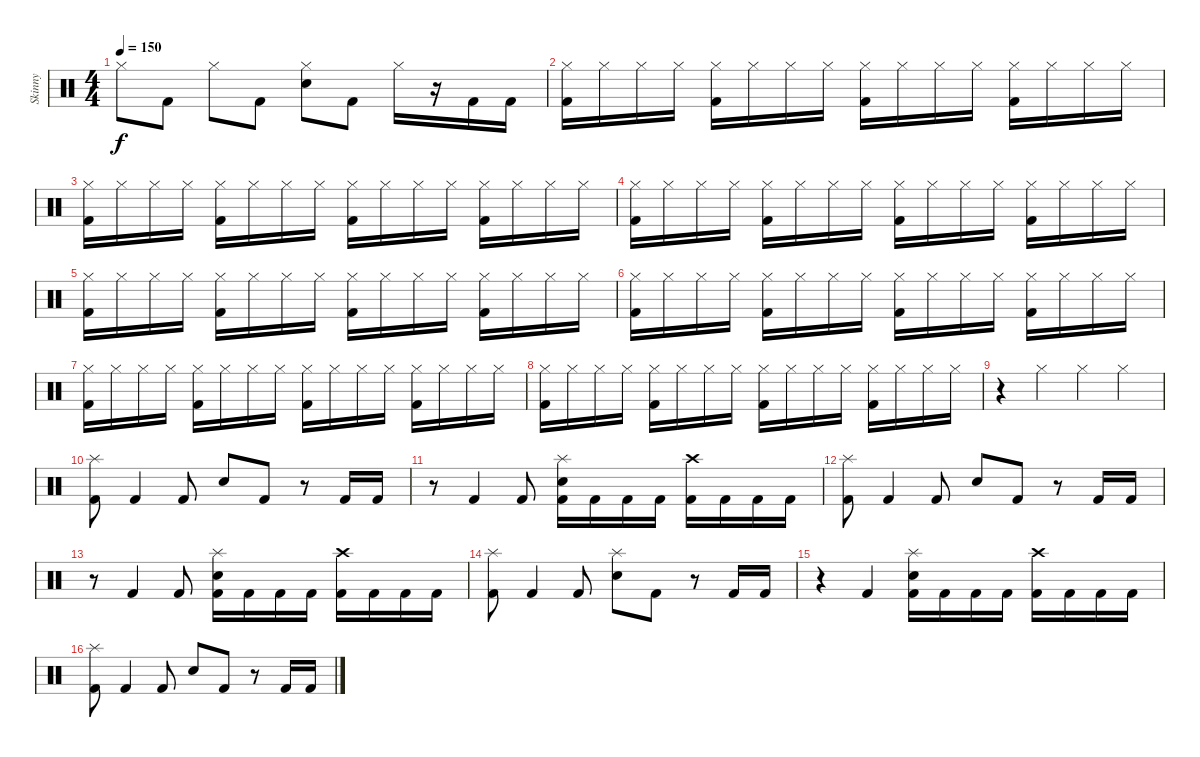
\track ("Skinny" "Skinny") {instrument percussion}
\staff {score}
\articulation defaults
\ts (4 4)
\tempo 150
\clef neutral
\ks c "Hi-Hat (closed)".8{dy f} "Kick (hit) 2".8 "Hi-Hat (closed)".8 "Kick (hit) 2".8
("Hi-Hat (closed)" "Electric Snare (hit)").8 "Kick (hit) 2".8 "Hi-Hat (closed)".16 r.16 "Kick (hit) 2".16 "Kick (hit) 2".16 |
("Hi-Hat (closed)" "Kick (hit) 2").16 "Hi-Hat (closed)".16 "Hi-Hat (closed)".16 "Hi-Hat (closed)".16 ("Hi-Hat (closed)" "Kick (hit) 2").16 "Hi-Hat (closed)".16 "Hi-Hat (closed)".16 "Hi-Hat (closed)".16 ("Hi-Hat (closed)" "Kick (hit) 2").16 "Hi-Hat (closed)".16 "Hi-Hat (closed)".16 "Hi-Hat (closed)".16 ("Hi-Hat (closed)" "Kick (hit) 2").16 "Hi-Hat (closed)".16 "Hi-Hat (closed)".16 "Hi-Hat (closed)".16 |
("Hi-Hat (closed)" "Kick (hit) 2").16 "Hi-Hat (closed)".16 "Hi-Hat (closed)".16 "Hi-Hat (closed)".16 ("Hi-Hat (closed)" "Kick (hit) 2").16 "Hi-Hat (closed)".16 "Hi-Hat (closed)".16 "Hi-Hat (closed)".16 ("Hi-Hat (closed)" "Kick (hit) 2").16 "Hi-Hat (closed)".16 "Hi-Hat (closed)".16 "Hi-Hat (closed)".16 ("Hi-Hat (closed)" "Kick (hit) 2").16 "Hi-Hat (closed)".16 "Hi-Hat (closed)".16 "Hi-Hat (closed)".16 |
("Hi-Hat (closed)" "Kick (hit) 2").16 "Hi-Hat (closed)".16 "Hi-Hat (closed)".16 "Hi-Hat (closed)".16 ("Hi-Hat (closed)" "Kick (hit) 2").16 "Hi-Hat (closed)".16 "Hi-Hat (closed)".16 "Hi-Hat (closed)".16 ("Hi-Hat (closed)" "Kick (hit) 2").16 "Hi-Hat (closed)".16 "Hi-Hat (closed)".16 "Hi-Hat (closed)".16 ("Hi-Hat (closed)" "Kick (hit) 2").16 "Hi-Hat (closed)".16 "Hi-Hat (closed)".16 "Hi-Hat (closed)".16 |
("Hi-Hat (closed)" "Kick (hit) 2").16 "Hi-Hat (closed)".16 "Hi-Hat (closed)".16 "Hi-Hat (closed)".16 ("Hi-Hat (closed)" "Kick (hit) 2").16 "Hi-Hat (closed)".16 "Hi-Hat (closed)".16 "Hi-Hat (closed)".16 ("Hi-Hat (closed)" "Kick (hit) 2").16 "Hi-Hat (closed)".16 "Hi-Hat (closed)".16 "Hi-Hat (closed)".16 ("Hi-Hat (closed)" "Kick (hit) 2").16 "Hi-Hat (closed)".16 "Hi-Hat (closed)".16 "Hi-Hat (closed)".16 |
("Hi-Hat (closed)" "Kick (hit) 2").16 "Hi-Hat (closed)".16 "Hi-Hat (closed)".16 "Hi-Hat (closed)".16 ("Hi-Hat (closed)" "Kick (hit) 2").16 "Hi-Hat (closed)".16 "Hi-Hat (closed)".16 "Hi-Hat (closed)".16 ("Hi-Hat (closed)" "Kick (hit) 2").16 "Hi-Hat (closed)".16 "Hi-Hat (closed)".16 "Hi-Hat (closed)".16 ("Hi-Hat (closed)" "Kick (hit) 2").16 "Hi-Hat (closed)".16 "Hi-Hat (closed)".16 "Hi-Hat (closed)".16 |
("Hi-Hat (closed)" "Kick (hit) 2").16 "Hi-Hat (closed)".16 "Hi-Hat (closed)".16 "Hi-Hat (closed)".16 ("Hi-Hat (closed)" "Kick (hit) 2").16 "Hi-Hat (closed)".16 "Hi-Hat (closed)".16 "Hi-Hat (closed)".16 ("Hi-Hat (closed)" "Kick (hit) 2").16 "Hi-Hat (closed)".16 "Hi-Hat (closed)".16 "Hi-Hat (closed)".16 ("Hi-Hat (closed)" "Kick (hit) 2").16 "Hi-Hat (closed)".16 "Hi-Hat (closed)".16 "Hi-Hat (closed)".16 |
("Hi-Hat (closed)" "Kick (hit) 2").16 "Hi-Hat (closed)".16 "Hi-Hat (closed)".16 "Hi-Hat (closed)".16 ("Hi-Hat (closed)" "Kick (hit) 2").16 "Hi-Hat (closed)".16 "Hi-Hat (closed)".16 "Hi-Hat (closed)".16 ("Hi-Hat (closed)" "Kick (hit) 2").16 "Hi-Hat (closed)".16 "Hi-Hat (closed)".16 "Hi-Hat (closed)".16 ("Hi-Hat (closed)" "Kick (hit) 2").16 "Hi-Hat (closed)".16 "Hi-Hat (closed)".16 "Hi-Hat (closed)".16 |
r.4 "Hi-Hat (closed)".4 "Hi-Hat (closed)".4 "Hi-Hat (closed)".4 |
("Splash (hit)" "Kick (hit) 2").8 "Kick (hit) 2".4 "Kick (hit) 2".8 "Electric Snare (hit)".8 "Kick (hit) 2".8 r.8 "Kick (hit) 2".16 "Kick (hit) 2".16 |
r.8 "Kick (hit) 2".4 "Kick (hit) 2".8 ("Splash (hit)" "Electric Snare (hit)" "Kick (hit) 2").16 "Kick (hit) 2".16 "Kick (hit) 2".16 "Kick (hit) 2".16 ("Crash high (hit)" "Kick (hit) 2").16 "Kick (hit) 2".16 "Kick (hit) 2".16 "Kick (hit) 2".16 |
("Splash (hit)" "Kick (hit) 2").8 "Kick (hit) 2".4 "Kick (hit) 2".8 "Electric Snare (hit)".8 "Kick (hit) 2".8 r.8 "Kick (hit) 2".16 "Kick (hit) 2".16 |
r.8 "Kick (hit) 2".4 "Kick (hit) 2".8 ("Splash (hit)" "Electric Snare (hit)" "Kick (hit) 2").16 "Kick (hit) 2".16 "Kick (hit) 2".16 "Kick (hit) 2".16 ("Crash high (hit)" "Kick (hit) 2").16 "Kick (hit) 2".16 "Kick (hit) 2".16 "Kick (hit) 2".16 |
("Splash (hit)" "Kick (hit) 2").8 "Kick (hit) 2".4 "Kick (hit) 2".8 ("Splash (hit)" "Electric Snare (hit)").8 "Kick (hit) 2".8 r.8 "Kick (hit) 2".16 "Kick (hit) 2".16 |
r.4 "Kick (hit) 2".4 ("Splash (hit)" "Electric Snare (hit)" "Kick (hit) 2").16 "Kick (hit) 2".16 "Kick (hit) 2".16 "Kick (hit) 2".16 ("Crash high (hit)" "Kick (hit) 2").16 "Kick (hit) 2".16 "Kick (hit) 2".16 "Kick (hit) 2".16 |
("Splash (hit)" "Kick (hit) 2").8 "Kick (hit) 2".4 "Kick (hit) 2".8 "Electric Snare (hit)".8 "Kick (hit) 2".8 r.8 "Kick (hit) 2".16 "Kick (hit) 2".16
